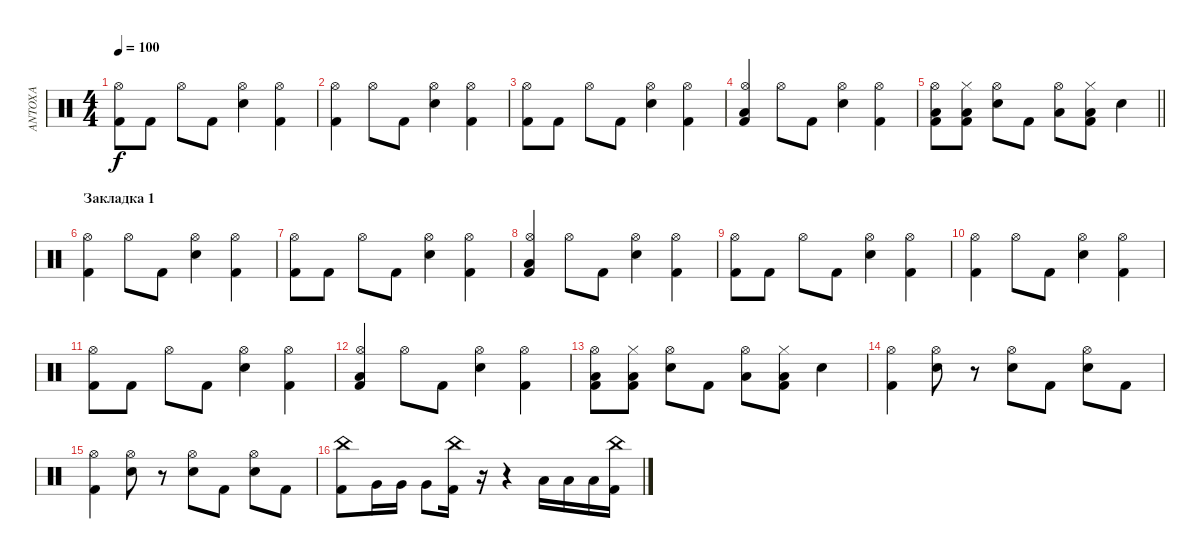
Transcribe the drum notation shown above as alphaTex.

\track ("ANTOXA" "ANTOXA") {instrument percussion}
\staff {score}
\articulation defaults
\ts (4 4)
\tempo 100
\clef neutral
\ks c
("Kick (hit) 2" "Hi-Hat (open)").8{dy f} "Kick (hit) 2".8 "Hi-Hat (open)".8 "Kick (hit) 2".8 ("Hi-Hat (open)" "Electric Snare (hit)").4 ("Kick (hit) 2" "Hi-Hat (open)").4 |
("Kick (hit) 2" "Hi-Hat (open)").4 "Hi-Hat (open)".8 "Kick (hit) 2".8 ("Hi-Hat (open)" "Electric Snare (hit)").4 ("Kick (hit) 2" "Hi-Hat (open)").4 |
("Kick (hit) 2" "Hi-Hat (open)").8 "Kick (hit) 2".8 "Hi-Hat (open)".8 "Kick (hit) 2".8 ("Hi-Hat (open)" "Electric Snare (hit)").4 ("Kick (hit) 2" "Hi-Hat (open)").4 |
("Kick (hit) 2" "Hi-Hat (open)" "Low Floor Tom (hit)").4 "Hi-Hat (open)".8 "Kick (hit) 2".8 ("Hi-Hat (open)" "Electric Snare (hit)").4 ("Kick (hit) 2" "Hi-Hat (open)").4 |
\barLineRight lightlight
("Kick (hit) 2" "Hi-Hat (open)" "Low Floor Tom (hit)").8 ("Kick (hit) 2" "Hi-Hat (closed)" "Low Floor Tom (hit)").8 ("Hi-Hat (open)" "Electric Snare (hit)").8 "Kick (hit) 2".8 ("Hi-Hat (open)" "Low Floor Tom (hit)").8 ("Kick (hit) 2" "Hi-Hat (closed)" "Low Floor Tom (hit)").8 "Electric Snare (hit)".4 |
\section ("" "Закладка 1")
("Kick (hit) 2" "Hi-Hat (open)").4 "Hi-Hat (open)".8 "Kick (hit) 2".8 ("Hi-Hat (open)" "Electric Snare (hit)").4 ("Kick (hit) 2" "Hi-Hat (open)").4 |
("Kick (hit) 2" "Hi-Hat (open)").8 "Kick (hit) 2".8 "Hi-Hat (open)".8 "Kick (hit) 2".8 ("Hi-Hat (open)" "Electric Snare (hit)").4 ("Kick (hit) 2" "Hi-Hat (open)").4 |
("Kick (hit) 2" "Hi-Hat (open)" "Low Floor Tom (hit)").4 "Hi-Hat (open)".8 "Kick (hit) 2".8 ("Hi-Hat (open)" "Electric Snare (hit)").4 ("Kick (hit) 2" "Hi-Hat (open)").4 |
("Kick (hit) 2" "Hi-Hat (open)").8 "Kick (hit) 2".8 "Hi-Hat (open)".8 "Kick (hit) 2".8 ("Hi-Hat (open)" "Electric Snare (hit)").4 ("Kick (hit) 2" "Hi-Hat (open)").4 |
("Kick (hit) 2" "Hi-Hat (open)").4 "Hi-Hat (open)".8 "Kick (hit) 2".8 ("Hi-Hat (open)" "Electric Snare (hit)").4 ("Kick (hit) 2" "Hi-Hat (open)").4 |
("Kick (hit) 2" "Hi-Hat (open)").8 "Kick (hit) 2".8 "Hi-Hat (open)".8 "Kick (hit) 2".8 ("Hi-Hat (open)" "Electric Snare (hit)").4 ("Kick (hit) 2" "Hi-Hat (open)").4 |
("Kick (hit) 2" "Hi-Hat (open)" "Low Floor Tom (hit)").4 "Hi-Hat (open)".8 "Kick (hit) 2".8 ("Hi-Hat (open)" "Electric Snare (hit)").4 ("Kick (hit) 2" "Hi-Hat (open)").4 |
("Kick (hit) 2" "Hi-Hat (open)" "Low Floor Tom (hit)").8 ("Kick (hit) 2" "Hi-Hat (closed)" "Low Floor Tom (hit)").8 ("Hi-Hat (open)" "Electric Snare (hit)").8 "Kick (hit) 2".8 ("Hi-Hat (open)" "Low Floor Tom (hit)").8 ("Kick (hit) 2" "Hi-Hat (closed)" "Low Floor Tom (hit)").8 "Electric Snare (hit)".4 |
("Kick (hit) 2" "Hi-Hat (open)").4 ("Hi-Hat (open)" "Electric Snare (hit)").8 r.8 ("Hi-Hat (open)" "Electric Snare (hit)").8 "Kick (hit) 2".8 ("Hi-Hat (open)" "Electric Snare (hit)").8 "Kick (hit) 2".8 |
("Kick (hit) 2" "Hi-Hat (open)").4 ("Hi-Hat (open)" "Electric Snare (hit)").8 r.8 ("Hi-Hat (open)" "Electric Snare (hit)").8 "Kick (hit) 2".8 ("Hi-Hat (open)" "Electric Snare (hit)").8 "Kick (hit) 2".8 |
("Kick (hit) 2" "China (hit)").8 "Very Low Tom (hit)".16 "Very Low Tom (hit)".16 "Very Low Tom (hit)".8 ("Kick (hit) 2" "China (hit)").16 r.16 r.4 "Low Floor Tom (hit)".16 "Low Floor Tom (hit)".16 "Low Floor Tom (hit)".16 ("Kick (hit) 2" "China (hit)").16
